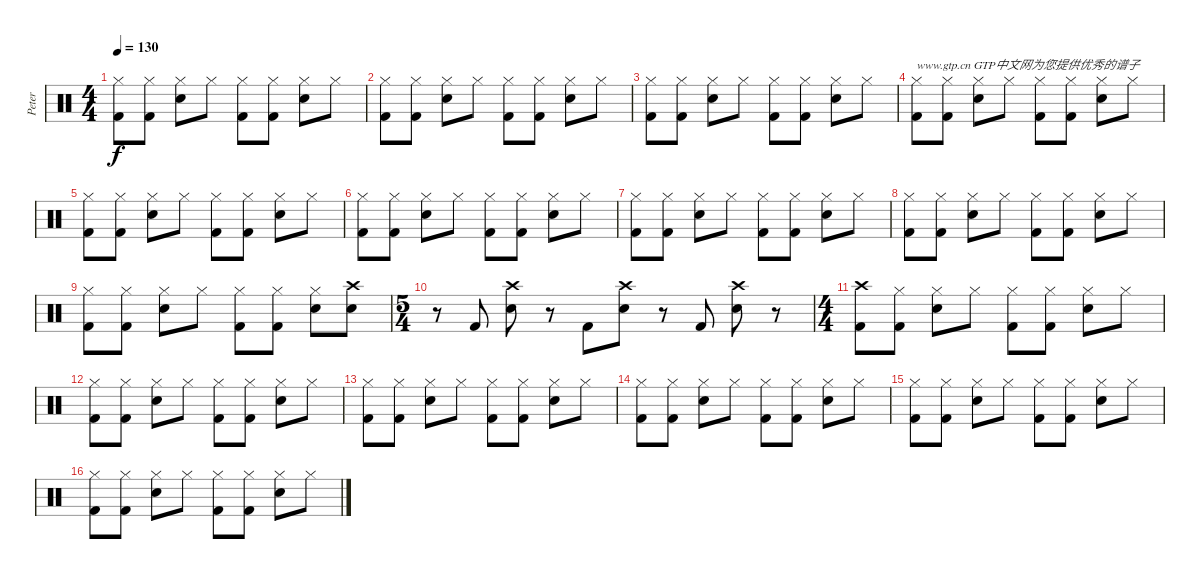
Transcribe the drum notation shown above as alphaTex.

\track ("Peter" "Peter") {instrument percussion}
\staff {score}
\articulation defaults
\ts (4 4)
\tempo 130
\clef neutral
\ks c
("Hi-Hat (closed)" "Kick (hit) 2").8{dy f} ("Hi-Hat (closed)" "Kick (hit) 2").8 ("Hi-Hat (closed)" "Electric Snare (hit)").8 "Hi-Hat (closed)".8 ("Hi-Hat (closed)" "Kick (hit) 2").8 ("Hi-Hat (closed)" "Kick (hit) 2").8 ("Hi-Hat (closed)" "Electric Snare (hit)").8 "Hi-Hat (closed)".8 |
("Hi-Hat (closed)" "Kick (hit) 2").8 ("Hi-Hat (closed)" "Kick (hit) 2").8 ("Hi-Hat (closed)" "Electric Snare (hit)").8 "Hi-Hat (closed)".8 ("Hi-Hat (closed)" "Kick (hit) 2").8 ("Hi-Hat (closed)" "Kick (hit) 2").8 ("Hi-Hat (closed)" "Electric Snare (hit)").8 "Hi-Hat (closed)".8 |
("Hi-Hat (closed)" "Kick (hit) 2").8 ("Hi-Hat (closed)" "Kick (hit) 2").8 ("Hi-Hat (closed)" "Electric Snare (hit)").8 "Hi-Hat (closed)".8 ("Hi-Hat (closed)" "Kick (hit) 2").8 ("Hi-Hat (closed)" "Kick (hit) 2").8 ("Hi-Hat (closed)" "Electric Snare (hit)").8 "Hi-Hat (closed)".8 |
("Hi-Hat (closed)" "Kick (hit) 2").8{txt "www.gtp.cn GTP中文网为您提供优秀的谱子"} ("Hi-Hat (closed)" "Kick (hit) 2").8 ("Hi-Hat (closed)" "Electric Snare (hit)").8 "Hi-Hat (closed)".8 ("Hi-Hat (closed)" "Kick (hit) 2").8 ("Hi-Hat (closed)" "Kick (hit) 2").8 ("Hi-Hat (closed)" "Electric Snare (hit)").8 "Hi-Hat (closed)".8 |
("Hi-Hat (closed)" "Kick (hit) 2").8 ("Hi-Hat (closed)" "Kick (hit) 2").8 ("Hi-Hat (closed)" "Electric Snare (hit)").8 "Hi-Hat (closed)".8 ("Hi-Hat (closed)" "Kick (hit) 2").8 ("Hi-Hat (closed)" "Kick (hit) 2").8 ("Hi-Hat (closed)" "Electric Snare (hit)").8 "Hi-Hat (closed)".8 |
("Hi-Hat (closed)" "Kick (hit) 2").8 ("Hi-Hat (closed)" "Kick (hit) 2").8 ("Hi-Hat (closed)" "Electric Snare (hit)").8 "Hi-Hat (closed)".8 ("Hi-Hat (closed)" "Kick (hit) 2").8 ("Hi-Hat (closed)" "Kick (hit) 2").8 ("Hi-Hat (closed)" "Electric Snare (hit)").8 "Hi-Hat (closed)".8 |
("Hi-Hat (closed)" "Kick (hit) 2").8 ("Hi-Hat (closed)" "Kick (hit) 2").8 ("Hi-Hat (closed)" "Electric Snare (hit)").8 "Hi-Hat (closed)".8 ("Hi-Hat (closed)" "Kick (hit) 2").8 ("Hi-Hat (closed)" "Kick (hit) 2").8 ("Hi-Hat (closed)" "Electric Snare (hit)").8 "Hi-Hat (closed)".8 |
("Hi-Hat (closed)" "Kick (hit) 2").8 ("Hi-Hat (closed)" "Kick (hit) 2").8 ("Hi-Hat (closed)" "Electric Snare (hit)").8 "Hi-Hat (closed)".8 ("Hi-Hat (closed)" "Kick (hit) 2").8 ("Hi-Hat (closed)" "Kick (hit) 2").8 ("Hi-Hat (closed)" "Electric Snare (hit)").8 "Hi-Hat (closed)".8 |
("Hi-Hat (closed)" "Kick (hit) 2").8 ("Hi-Hat (closed)" "Kick (hit) 2").8 ("Hi-Hat (closed)" "Electric Snare (hit)").8 "Hi-Hat (closed)".8 ("Hi-Hat (closed)" "Kick (hit) 2").8 ("Hi-Hat (closed)" "Kick (hit) 2").8 ("Hi-Hat (closed)" "Electric Snare (hit)").8 ("Crash high (hit)" "Electric Snare (hit)").8 |
\ts (5 4)
r.8 "Kick (hit) 2".8 ("Crash high (hit)" "Electric Snare (hit)").8 r.8 "Kick (hit) 2".8 ("Crash high (hit)" "Electric Snare (hit)").8 r.8 "Kick (hit) 2".8 ("Crash high (hit)" "Electric Snare (hit)").8 r.8 |
\ts (4 4)
("Crash high (hit)" "Kick (hit) 2").8 ("Hi-Hat (closed)" "Kick (hit) 2").8 ("Hi-Hat (closed)" "Electric Snare (hit)").8 "Hi-Hat (closed)".8 ("Hi-Hat (closed)" "Kick (hit) 2").8 ("Hi-Hat (closed)" "Kick (hit) 2").8 ("Hi-Hat (closed)" "Electric Snare (hit)").8 "Hi-Hat (closed)".8 |
("Hi-Hat (closed)" "Kick (hit) 2").8 ("Hi-Hat (closed)" "Kick (hit) 2").8 ("Hi-Hat (closed)" "Electric Snare (hit)").8 "Hi-Hat (closed)".8 ("Hi-Hat (closed)" "Kick (hit) 2").8 ("Hi-Hat (closed)" "Kick (hit) 2").8 ("Hi-Hat (closed)" "Electric Snare (hit)").8 "Hi-Hat (closed)".8 |
("Hi-Hat (closed)" "Kick (hit) 2").8 ("Hi-Hat (closed)" "Kick (hit) 2").8 ("Hi-Hat (closed)" "Electric Snare (hit)").8 "Hi-Hat (closed)".8 ("Hi-Hat (closed)" "Kick (hit) 2").8 ("Hi-Hat (closed)" "Kick (hit) 2").8 ("Hi-Hat (closed)" "Electric Snare (hit)").8 "Hi-Hat (closed)".8 |
("Hi-Hat (closed)" "Kick (hit) 2").8 ("Hi-Hat (closed)" "Kick (hit) 2").8 ("Hi-Hat (closed)" "Electric Snare (hit)").8 "Hi-Hat (closed)".8 ("Hi-Hat (closed)" "Kick (hit) 2").8 ("Hi-Hat (closed)" "Kick (hit) 2").8 ("Hi-Hat (closed)" "Electric Snare (hit)").8 "Hi-Hat (closed)".8 |
("Hi-Hat (closed)" "Kick (hit) 2").8 ("Hi-Hat (closed)" "Kick (hit) 2").8 ("Hi-Hat (closed)" "Electric Snare (hit)").8 "Hi-Hat (closed)".8 ("Hi-Hat (closed)" "Kick (hit) 2").8 ("Hi-Hat (closed)" "Kick (hit) 2").8 ("Hi-Hat (closed)" "Electric Snare (hit)").8 "Hi-Hat (closed)".8 |
("Hi-Hat (closed)" "Kick (hit) 2").8 ("Hi-Hat (closed)" "Kick (hit) 2").8 ("Hi-Hat (closed)" "Electric Snare (hit)").8 "Hi-Hat (closed)".8 ("Hi-Hat (closed)" "Kick (hit) 2").8 ("Hi-Hat (closed)" "Kick (hit) 2").8 ("Hi-Hat (closed)" "Electric Snare (hit)").8 "Hi-Hat (closed)".8
